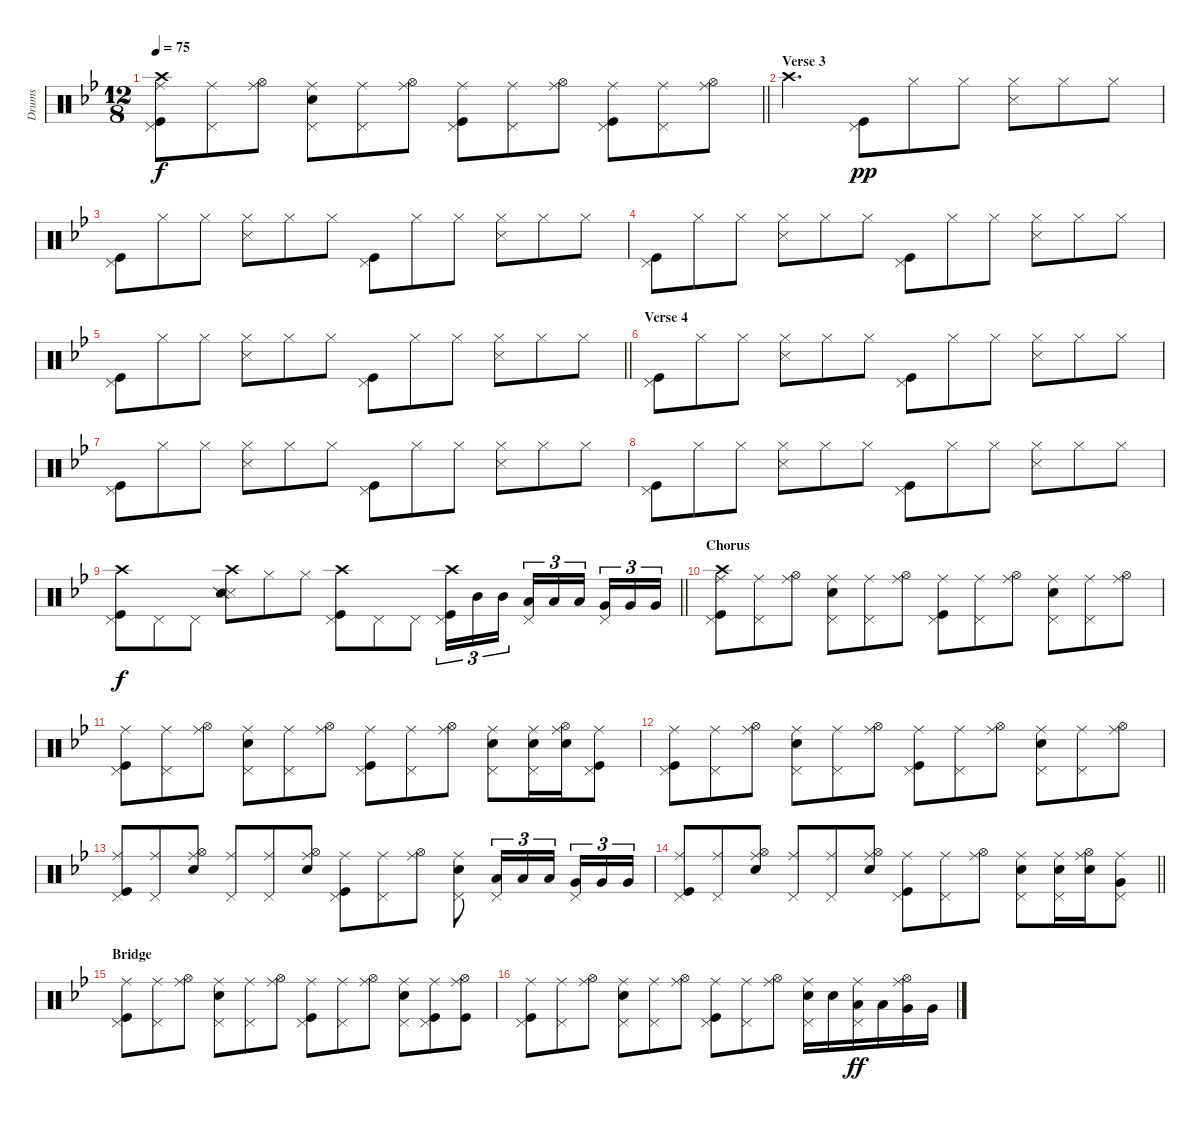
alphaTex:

\track ("Drums" "Drums") {instrument percussion}
\staff {score}
\articulation defaults
\ts (12 8)
\tempo 75
\clef neutral
\barLineRight lightlight
\ks bb
("Crash high (hit)" "Ride (middle)" "Pedal Hi-Hat (hit)" "Kick (hit)").8{dy f volume 8} ("Ride (middle)" "Pedal Hi-Hat (hit)").8 ("Ride (middle)" "Hi-Hat (open)").8 ("Ride (middle)" "Snare (hit) 2" "Pedal Hi-Hat (hit)").8 ("Ride (middle)" "Pedal Hi-Hat (hit)").8 ("Ride (middle)" "Hi-Hat (open)").8 ("Ride (middle)" "Pedal Hi-Hat (hit)" "Kick (hit)").8 ("Ride (middle)" "Pedal Hi-Hat (hit)").8 ("Ride (middle)" "Hi-Hat (open)").8 ("Ride (middle)" "Pedal Hi-Hat (hit)" "Kick (hit)").8 ("Ride (middle)" "Pedal Hi-Hat (hit)").8 ("Ride (middle)" "Hi-Hat (open)").8 |
\section ("" "Verse 3")
"Crash high (hit)".2{d} ("Pedal Hi-Hat (hit)" "Kick (hit)").8{dy pp} "Hi-Hat (closed)".8 "Hi-Hat (closed)".8 ("Hi-Hat (closed)" "Snare (side stick) 3").8 "Hi-Hat (closed)".8 "Hi-Hat (closed)".8 |
("Pedal Hi-Hat (hit)" "Kick (hit)").8 "Hi-Hat (closed)".8 "Hi-Hat (closed)".8 ("Hi-Hat (closed)" "Snare (side stick) 3").8 "Hi-Hat (closed)".8 "Hi-Hat (closed)".8 ("Pedal Hi-Hat (hit)" "Kick (hit)").8 "Hi-Hat (closed)".8 "Hi-Hat (closed)".8 ("Hi-Hat (closed)" "Snare (side stick) 3").8 "Hi-Hat (closed)".8 "Hi-Hat (closed)".8 |
("Pedal Hi-Hat (hit)" "Kick (hit)").8 "Hi-Hat (closed)".8 "Hi-Hat (closed)".8 ("Hi-Hat (closed)" "Snare (side stick) 3").8 "Hi-Hat (closed)".8 "Hi-Hat (closed)".8 ("Pedal Hi-Hat (hit)" "Kick (hit)").8 "Hi-Hat (closed)".8 "Hi-Hat (closed)".8 ("Hi-Hat (closed)" "Snare (side stick) 3").8 "Hi-Hat (closed)".8 "Hi-Hat (closed)".8 |
\barLineRight lightlight
("Pedal Hi-Hat (hit)" "Kick (hit)").8 "Hi-Hat (closed)".8 "Hi-Hat (closed)".8 ("Hi-Hat (closed)" "Snare (side stick) 3").8 "Hi-Hat (closed)".8 "Hi-Hat (closed)".8 ("Pedal Hi-Hat (hit)" "Kick (hit)").8 "Hi-Hat (closed)".8 "Hi-Hat (closed)".8 ("Hi-Hat (closed)" "Snare (side stick) 3").8 "Hi-Hat (closed)".8 "Hi-Hat (closed)".8 |
\section ("" "Verse 4")
("Pedal Hi-Hat (hit)" "Kick (hit)").8 "Hi-Hat (closed)".8 "Hi-Hat (closed)".8 ("Hi-Hat (closed)" "Snare (side stick) 3").8 "Hi-Hat (closed)".8 "Hi-Hat (closed)".8 ("Pedal Hi-Hat (hit)" "Kick (hit)").8 "Hi-Hat (closed)".8 "Hi-Hat (closed)".8 ("Hi-Hat (closed)" "Snare (side stick) 3").8 "Hi-Hat (closed)".8 "Hi-Hat (closed)".8 |
("Pedal Hi-Hat (hit)" "Kick (hit)").8 "Hi-Hat (closed)".8 "Hi-Hat (closed)".8 ("Hi-Hat (closed)" "Snare (side stick) 3").8 "Hi-Hat (closed)".8 "Hi-Hat (closed)".8 ("Pedal Hi-Hat (hit)" "Kick (hit)").8 "Hi-Hat (closed)".8 "Hi-Hat (closed)".8 ("Hi-Hat (closed)" "Snare (side stick) 3").8 "Hi-Hat (closed)".8 "Hi-Hat (closed)".8 |
("Pedal Hi-Hat (hit)" "Kick (hit)").8 "Hi-Hat (closed)".8 "Hi-Hat (closed)".8 ("Hi-Hat (closed)" "Snare (side stick) 3").8 "Hi-Hat (closed)".8 "Hi-Hat (closed)".8 ("Pedal Hi-Hat (hit)" "Kick (hit)").8 "Hi-Hat (closed)".8 "Hi-Hat (closed)".8 ("Hi-Hat (closed)" "Snare (side stick) 3").8 "Hi-Hat (closed)".8 "Hi-Hat (closed)".8 |
\barLineRight lightlight
("Crash high (hit)" "Pedal Hi-Hat (hit)" "Kick (hit)").8{dy f volume 12} "Pedal Hi-Hat (hit)".8 "Pedal Hi-Hat (hit)".8 ("Crash high (hit)" "Snare (side stick) 3" "Snare (side stick) 2").8 "Hi-Hat (closed)".8 "Hi-Hat (closed)".8 ("Crash high (hit)" "Pedal Hi-Hat (hit)" "Kick (hit)").8 "Pedal Hi-Hat (hit)".8 "Pedal Hi-Hat (hit)".8 ("Crash high (hit)" "Pedal Hi-Hat (hit)" "Kick (hit)").16{tu (3 2)} "Mid Tom (hit)".16{tu (3 2)} "Mid Tom (hit)".16{tu (3 2) beam splitsecondary} ("Pedal Hi-Hat (hit)" "Low Tom (hit)").16{tu (3 2)} "Low Tom (hit)".16{tu (3 2)} "Low Tom (hit)".16{tu (3 2) beam splitsecondary} ("Pedal Hi-Hat (hit)" "Very Low Tom (hit)").16{tu (3 2)} "Very Low Tom (hit)".16{tu (3 2)} "Very Low Tom (hit)".16{tu (3 2)} |
\section ("" "Chorus")
("Crash high (hit)" "Ride (middle)" "Pedal Hi-Hat (hit)" "Kick (hit)").8 ("Ride (middle)" "Pedal Hi-Hat (hit)").8 ("Ride (middle)" "Hi-Hat (open)").8 ("Ride (middle)" "Snare (hit) 2" "Pedal Hi-Hat (hit)").8 ("Ride (middle)" "Pedal Hi-Hat (hit)").8 ("Ride (middle)" "Hi-Hat (open)").8 ("Ride (middle)" "Pedal Hi-Hat (hit)" "Kick (hit)").8 ("Ride (middle)" "Pedal Hi-Hat (hit)").8 ("Ride (middle)" "Hi-Hat (open)").8 ("Ride (middle)" "Snare (hit) 2" "Pedal Hi-Hat (hit)").8 ("Ride (middle)" "Pedal Hi-Hat (hit)").8 ("Ride (middle)" "Hi-Hat (open)").8 |
("Ride (middle)" "Pedal Hi-Hat (hit)" "Kick (hit)").8 ("Ride (middle)" "Pedal Hi-Hat (hit)").8 ("Ride (middle)" "Hi-Hat (open)").8 ("Ride (middle)" "Snare (hit) 2" "Pedal Hi-Hat (hit)").8 ("Ride (middle)" "Pedal Hi-Hat (hit)").8 ("Ride (middle)" "Hi-Hat (open)").8 ("Ride (middle)" "Pedal Hi-Hat (hit)" "Kick (hit)").8 ("Ride (middle)" "Pedal Hi-Hat (hit)").8 ("Ride (middle)" "Hi-Hat (open)").8 ("Ride (middle)" "Snare (hit) 2" "Pedal Hi-Hat (hit)").8 ("Ride (middle)" "Snare (hit) 2" "Pedal Hi-Hat (hit)").16 ("Ride (middle)" "Snare (hit) 2" "Hi-Hat (open)").16 ("Ride (middle)" "Pedal Hi-Hat (hit)" "Kick (hit)").8 |
("Ride (middle)" "Pedal Hi-Hat (hit)" "Kick (hit)").8 ("Ride (middle)" "Pedal Hi-Hat (hit)").8 ("Ride (middle)" "Hi-Hat (open)").8 ("Ride (middle)" "Snare (hit) 2" "Pedal Hi-Hat (hit)").8 ("Ride (middle)" "Pedal Hi-Hat (hit)").8 ("Ride (middle)" "Hi-Hat (open)").8 ("Ride (middle)" "Pedal Hi-Hat (hit)" "Kick (hit)").8 ("Ride (middle)" "Pedal Hi-Hat (hit)").8 ("Ride (middle)" "Hi-Hat (open)").8 ("Ride (middle)" "Snare (hit) 2" "Pedal Hi-Hat (hit)").8 ("Ride (middle)" "Pedal Hi-Hat (hit)").8 ("Ride (middle)" "Hi-Hat (open)").8 |
("Ride (middle)" "Pedal Hi-Hat (hit)" "Kick (hit)").8 ("Ride (middle)" "Pedal Hi-Hat (hit)").8 ("Ride (middle)" "Snare (hit) 2" "Hi-Hat (open)").8 ("Ride (middle)" "Pedal Hi-Hat (hit)").8 ("Ride (middle)" "Pedal Hi-Hat (hit)").8 ("Ride (middle)" "Snare (hit) 2" "Hi-Hat (open)").8 ("Ride (middle)" "Pedal Hi-Hat (hit)" "Kick (hit)").8 ("Ride (middle)" "Pedal Hi-Hat (hit)").8 ("Ride (middle)" "Hi-Hat (open)").8 ("Ride (middle)" "Snare (hit) 2" "Pedal Hi-Hat (hit)").8 ("Pedal Hi-Hat (hit)" "Low Tom (hit)").16{tu (3 2)} "Low Tom (hit)".16{tu (3 2)} "Low Tom (hit)".16{tu (3 2) beam splitsecondary} ("Pedal Hi-Hat (hit)" "Very Low Tom (hit)").16{tu (3 2)} "Very Low Tom (hit)".16{tu (3 2)} "Very Low Tom (hit)".16{tu (3 2)} |
\barLineRight lightlight
("Ride (middle)" "Pedal Hi-Hat (hit)" "Kick (hit)").8 ("Ride (middle)" "Pedal Hi-Hat (hit)").8 ("Ride (middle)" "Snare (hit) 2" "Hi-Hat (open)").8 ("Ride (middle)" "Pedal Hi-Hat (hit)").8 ("Ride (middle)" "Pedal Hi-Hat (hit)").8 ("Ride (middle)" "Snare (hit) 2" "Hi-Hat (open)").8 ("Ride (middle)" "Pedal Hi-Hat (hit)" "Kick (hit)").8 ("Ride (middle)" "Pedal Hi-Hat (hit)").8 ("Ride (middle)" "Hi-Hat (open)").8 ("Ride (middle)" "Snare (hit) 2" "Pedal Hi-Hat (hit)").8 ("Ride (middle)" "Snare (hit) 2" "Pedal Hi-Hat (hit)").16 ("Ride (middle)" "Snare (hit) 2" "Hi-Hat (open)").16 ("Ride (middle)" "Very Low Tom (hit)" "Pedal Hi-Hat (hit)").8 |
\section ("" "Bridge")
("Ride (middle)" "Pedal Hi-Hat (hit)" "Kick (hit)").8 ("Ride (middle)" "Pedal Hi-Hat (hit)").8 ("Ride (middle)" "Hi-Hat (open)").8 ("Ride (middle)" "Snare (hit) 2" "Pedal Hi-Hat (hit)").8 ("Ride (middle)" "Pedal Hi-Hat (hit)").8 ("Ride (middle)" "Hi-Hat (open)").8 ("Ride (middle)" "Pedal Hi-Hat (hit)" "Kick (hit)").8 ("Ride (middle)" "Pedal Hi-Hat (hit)").8 ("Ride (middle)" "Hi-Hat (open)").8 ("Ride (middle)" "Snare (hit) 2" "Pedal Hi-Hat (hit)").8 ("Ride (middle)" "Pedal Hi-Hat (hit)" "Kick (hit)").8 ("Ride (middle)" "Hi-Hat (open)" "Kick (hit)").8 |
("Ride (middle)" "Pedal Hi-Hat (hit)" "Kick (hit)").8 ("Ride (middle)" "Pedal Hi-Hat (hit)").8 ("Ride (middle)" "Hi-Hat (open)").8 ("Ride (middle)" "Snare (hit) 2" "Pedal Hi-Hat (hit)").8 ("Ride (middle)" "Pedal Hi-Hat (hit)").8 ("Ride (middle)" "Hi-Hat (open)").8 ("Ride (middle)" "Pedal Hi-Hat (hit)" "Kick (hit)").8 ("Ride (middle)" "Pedal Hi-Hat (hit)").8 ("Ride (middle)" "Hi-Hat (open)").8 ("Ride (middle)" "Snare (hit) 2" "Pedal Hi-Hat (hit)").16 "Snare (hit) 2".16 ("Ride (middle)" "Low Tom (hit)" "Pedal Hi-Hat (hit)").16{dy ff} "Low Tom (hit)".16 ("Ride (middle)" "Very Low Tom (hit)" "Hi-Hat (open)").16 "Very Low Tom (hit)".16
